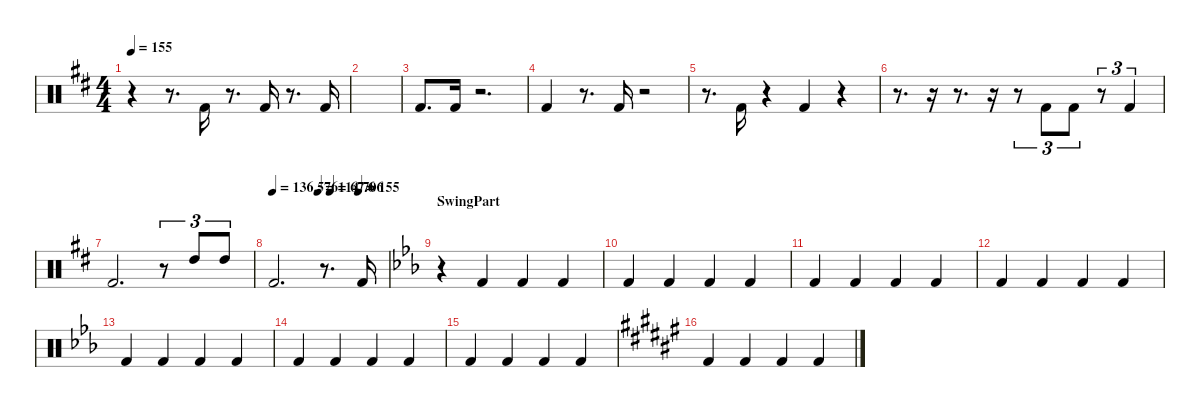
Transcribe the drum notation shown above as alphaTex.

\hideDynamics
\bracketExtendMode nobrackets
\singleTrackTrackNamePolicy hidden
\multiTrackTrackNamePolicy hidden
\otherSystemsTrackNameOrientation horizontal
\track ("Kick" "Drums") {instrument percussion}
\staff {score}
\articulation defaults
\ts (4 4)
\tempo 155
\clef neutral
\ks d
r.4{dy mp beam Down} r.8{d beam Down} "Kick (hit) 2"{acc forcenatural}.16{beam Up} r.8{d beam Up} "Kick (hit) 2"{acc forcenatural}.16{beam Up} r.8{d beam Up} "Kick (hit) 2"{acc forcenatural}.16{beam Up} |
|
"Kick (hit) 2"{acc forcenatural}.8{d dy mf beam Up} "Kick (hit) 2"{acc forcenatural}.16{dy mp beam Up} r.2{d beam Up} |
"Kick (hit) 2"{acc forcenatural}.4{dy mf beam Up} r.8{d beam Up} "Kick (hit) 2"{acc forcenatural}.16{dy mp beam Up} r.2{beam Up} |
r.8{d beam Down} "Kick (hit) 2"{acc forcenatural}.16{dy mf beam Up} r.4{beam Up} "Kick (hit) 2"{acc forcenatural}.4{beam Up} r.4{beam Up} |
r.8{d beam Down} r.16{beam Down} r.8{d beam Down} r.16{beam Down} r.8{tu (3 2) beam Down} "Kick (hit) 2"{acc forcenatural}.8{tu (3 2) beam Up} "Kick (hit) 2"{acc forcenatural}.8{tu (3 2) beam Up} r.8{tu (3 2) beam Up} "Kick (hit) 2"{acc forcenatural}.4{tu (3 2) beam Up} |
"Kick (hit) 2"{acc forcenatural}.2{d beam Up} r.8{tu (3 2) beam Up} "High Tom (hit)"{acc forcenatural}.8{tu (3 2) beam Down} "High Tom (hit)"{acc forcenatural}.8{tu (3 2) beam Down} |
\tempo
136.576
\tempo (114.706 0.39375)
\tempo (67.6 0.5)
\tempo (155 0.74375)
"Kick (hit) 2"{acc forcenatural}.2{d beam Up} r.8{d beam Up} "Kick (hit) 2"{acc forcenatural}.16{beam Up} |
\section ("" "SwingPart")
\ks eb
r.4{beam Down} "Kick (hit) 2"{acc forcenatural}.4{dy mp beam Up} "Kick (hit) 2"{acc forcenatural}.4{beam Up} "Kick (hit) 2"{acc forcenatural}.4{beam Up} |
"Kick (hit) 2"{acc forcenatural}.4{beam Up} "Kick (hit) 2"{acc forcenatural}.4{beam Up} "Kick (hit) 2"{acc forcenatural}.4{beam Up} "Kick (hit) 2"{acc forcenatural}.4{beam Up} |
"Kick (hit) 2"{acc forcenatural}.4{dy p beam Up} "Kick (hit) 2"{acc forcenatural}.4{beam Up} "Kick (hit) 2"{acc forcenatural}.4{beam Up} "Kick (hit) 2"{acc forcenatural}.4{beam Up} |
"Kick (hit) 2"{acc forcenatural}.4{beam Up} "Kick (hit) 2"{acc forcenatural}.4{beam Up} "Kick (hit) 2"{acc forcenatural}.4{beam Up} "Kick (hit) 2"{acc forcenatural}.4{beam Up} |
"Kick (hit) 2"{acc forcenatural}.4{beam Up} "Kick (hit) 2"{acc forcenatural}.4{beam Up} "Kick (hit) 2"{acc forcenatural}.4{beam Up} "Kick (hit) 2"{acc forcenatural}.4{beam Up} |
"Kick (hit) 2"{acc forcenatural}.4{beam Up} "Kick (hit) 2"{acc forcenatural}.4{beam Up} "Kick (hit) 2"{acc forcenatural}.4{beam Up} "Kick (hit) 2"{acc forcenatural}.4{beam Up} |
"Kick (hit) 2"{acc forcenatural}.4{beam Up} "Kick (hit) 2"{acc forcenatural}.4{beam Up} "Kick (hit) 2"{acc forcenatural}.4{beam Up} "Kick (hit) 2"{acc forcenatural}.4{beam Up} |
\ks f# "Kick (hit) 2"{acc forcenatural}.4{beam Up} "Kick (hit) 2"{acc forcenatural}.4{beam Up} "Kick (hit) 2"{acc forcenatural}.4{beam Up} "Kick (hit) 2"{acc forcenatural}.4{beam Up}
